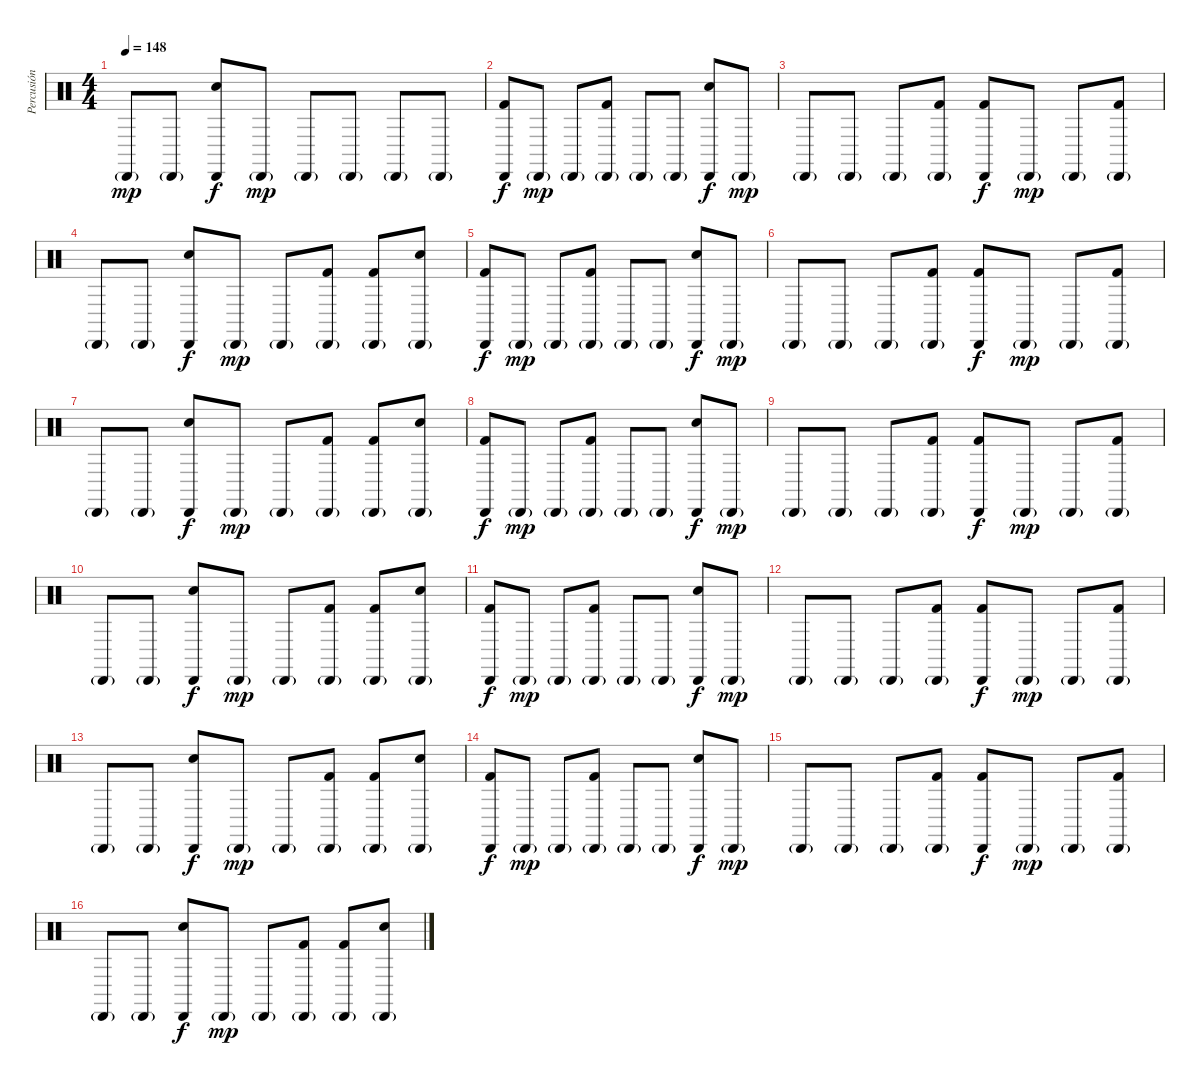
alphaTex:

\track ("Percusión" "Percusión") {instrument percussion}
\staff {score}
\articulation defaults
\ts (4 4)
\tempo 148
\clef neutral
\ks c "Cabasa (hit)"{g}.8{dy mp} "Cabasa (hit)"{g}.8
("Electric Snare (hit)" "Cabasa (hit)").8{dy f} "Cabasa (hit)"{g}.8{dy mp} "Cabasa (hit)"{g}.8 "Cabasa (hit)"{g}.8 "Cabasa (hit)"{g}.8 "Cabasa (hit)"{g}.8 |
("Kick (hit) 2" "Cabasa (hit)").8{dy f} "Cabasa (hit)"{g}.8{dy mp} "Cabasa (hit)"{g}.8 ("Kick (hit) 2" "Cabasa (hit)"{g}).8 "Cabasa (hit)"{g}.8 "Cabasa (hit)"{g}.8 ("Electric Snare (hit)" "Cabasa (hit)").8{dy f} "Cabasa (hit)"{g}.8{dy mp} |
"Cabasa (hit)"{g}.8 "Cabasa (hit)"{g}.8 "Cabasa (hit)"{g}.8 ("Kick (hit) 2" "Cabasa (hit)"{g}).8 ("Kick (hit) 2" "Cabasa (hit)").8{dy f} "Cabasa (hit)"{g}.8{dy mp} "Cabasa (hit)"{g}.8 ("Kick (hit) 2" "Cabasa (hit)"{g}).8 |
"Cabasa (hit)"{g}.8 "Cabasa (hit)"{g}.8 ("Electric Snare (hit)" "Cabasa (hit)").8{dy f} "Cabasa (hit)"{g}.8{dy mp} "Cabasa (hit)"{g}.8 ("Kick (hit) 2" "Cabasa (hit)"{g}).8 ("Kick (hit) 2" "Cabasa (hit)"{g}).8 ("Electric Snare (hit)" "Cabasa (hit)"{g}).8 |
("Kick (hit) 2" "Cabasa (hit)").8{dy f} "Cabasa (hit)"{g}.8{dy mp} "Cabasa (hit)"{g}.8 ("Kick (hit) 2" "Cabasa (hit)"{g}).8 "Cabasa (hit)"{g}.8 "Cabasa (hit)"{g}.8 ("Electric Snare (hit)" "Cabasa (hit)").8{dy f} "Cabasa (hit)"{g}.8{dy mp} |
"Cabasa (hit)"{g}.8 "Cabasa (hit)"{g}.8 "Cabasa (hit)"{g}.8 ("Kick (hit) 2" "Cabasa (hit)"{g}).8 ("Kick (hit) 2" "Cabasa (hit)").8{dy f} "Cabasa (hit)"{g}.8{dy mp} "Cabasa (hit)"{g}.8 ("Kick (hit) 2" "Cabasa (hit)"{g}).8 |
"Cabasa (hit)"{g}.8 "Cabasa (hit)"{g}.8 ("Electric Snare (hit)" "Cabasa (hit)").8{dy f} "Cabasa (hit)"{g}.8{dy mp} "Cabasa (hit)"{g}.8 ("Kick (hit) 2" "Cabasa (hit)"{g}).8 ("Kick (hit) 2" "Cabasa (hit)"{g}).8 ("Electric Snare (hit)" "Cabasa (hit)"{g}).8 |
("Kick (hit) 2" "Cabasa (hit)").8{dy f} "Cabasa (hit)"{g}.8{dy mp} "Cabasa (hit)"{g}.8 ("Kick (hit) 2" "Cabasa (hit)"{g}).8 "Cabasa (hit)"{g}.8 "Cabasa (hit)"{g}.8 ("Electric Snare (hit)" "Cabasa (hit)").8{dy f} "Cabasa (hit)"{g}.8{dy mp} |
"Cabasa (hit)"{g}.8 "Cabasa (hit)"{g}.8 "Cabasa (hit)"{g}.8 ("Kick (hit) 2" "Cabasa (hit)"{g}).8 ("Kick (hit) 2" "Cabasa (hit)").8{dy f} "Cabasa (hit)"{g}.8{dy mp} "Cabasa (hit)"{g}.8 ("Kick (hit) 2" "Cabasa (hit)"{g}).8 |
"Cabasa (hit)"{g}.8 "Cabasa (hit)"{g}.8 ("Electric Snare (hit)" "Cabasa (hit)").8{dy f} "Cabasa (hit)"{g}.8{dy mp} "Cabasa (hit)"{g}.8 ("Kick (hit) 2" "Cabasa (hit)"{g}).8 ("Kick (hit) 2" "Cabasa (hit)"{g}).8 ("Electric Snare (hit)" "Cabasa (hit)"{g}).8 |
("Kick (hit) 2" "Cabasa (hit)").8{dy f} "Cabasa (hit)"{g}.8{dy mp} "Cabasa (hit)"{g}.8 ("Kick (hit) 2" "Cabasa (hit)"{g}).8 "Cabasa (hit)"{g}.8 "Cabasa (hit)"{g}.8 ("Electric Snare (hit)" "Cabasa (hit)").8{dy f} "Cabasa (hit)"{g}.8{dy mp} |
"Cabasa (hit)"{g}.8 "Cabasa (hit)"{g}.8 "Cabasa (hit)"{g}.8 ("Kick (hit) 2" "Cabasa (hit)"{g}).8 ("Kick (hit) 2" "Cabasa (hit)").8{dy f} "Cabasa (hit)"{g}.8{dy mp} "Cabasa (hit)"{g}.8 ("Kick (hit) 2" "Cabasa (hit)"{g}).8 |
"Cabasa (hit)"{g}.8 "Cabasa (hit)"{g}.8 ("Electric Snare (hit)" "Cabasa (hit)").8{dy f} "Cabasa (hit)"{g}.8{dy mp} "Cabasa (hit)"{g}.8 ("Kick (hit) 2" "Cabasa (hit)"{g}).8 ("Kick (hit) 2" "Cabasa (hit)"{g}).8 ("Electric Snare (hit)" "Cabasa (hit)"{g}).8 |
("Kick (hit) 2" "Cabasa (hit)").8{dy f} "Cabasa (hit)"{g}.8{dy mp} "Cabasa (hit)"{g}.8 ("Kick (hit) 2" "Cabasa (hit)"{g}).8 "Cabasa (hit)"{g}.8 "Cabasa (hit)"{g}.8 ("Electric Snare (hit)" "Cabasa (hit)").8{dy f} "Cabasa (hit)"{g}.8{dy mp} |
"Cabasa (hit)"{g}.8 "Cabasa (hit)"{g}.8 "Cabasa (hit)"{g}.8 ("Kick (hit) 2" "Cabasa (hit)"{g}).8 ("Kick (hit) 2" "Cabasa (hit)").8{dy f} "Cabasa (hit)"{g}.8{dy mp} "Cabasa (hit)"{g}.8 ("Kick (hit) 2" "Cabasa (hit)"{g}).8 |
"Cabasa (hit)"{g}.8 "Cabasa (hit)"{g}.8 ("Electric Snare (hit)" "Cabasa (hit)").8{dy f} "Cabasa (hit)"{g}.8{dy mp} "Cabasa (hit)"{g}.8 ("Kick (hit) 2" "Cabasa (hit)"{g}).8 ("Kick (hit) 2" "Cabasa (hit)"{g}).8 ("Electric Snare (hit)" "Cabasa (hit)"{g}).8
